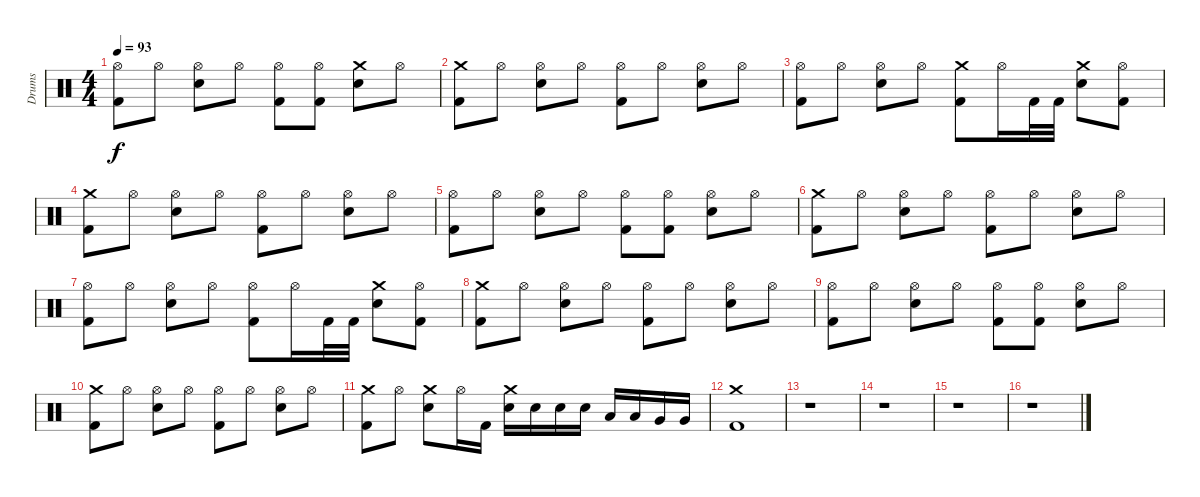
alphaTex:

\track ("Drums" "Drums") {instrument percussion}
\staff {score}
\articulation defaults
\ts (4 4)
\tempo 93
\clef neutral
\ks c
("Hi-Hat (open)" "Kick (hit) 2").8{dy f} "Hi-Hat (open)".8 ("Hi-Hat (open)" "Electric Snare (hit)").8 "Hi-Hat (open)".8 ("Hi-Hat (open)" "Kick (hit) 2").8 ("Hi-Hat (open)" "Kick (hit) 2").8 ("Crash medium (hit)" "Electric Snare (hit)").8 "Hi-Hat (open)".8 |
("Crash medium (hit)" "Kick (hit) 2").8 "Hi-Hat (open)".8 ("Hi-Hat (open)" "Electric Snare (hit)").8 "Hi-Hat (open)".8 ("Hi-Hat (open)" "Kick (hit) 2").8 "Hi-Hat (open)".8 ("Hi-Hat (open)" "Electric Snare (hit)").8 "Hi-Hat (open)".8 |
("Hi-Hat (open)" "Kick (hit) 2").8 "Hi-Hat (open)".8 ("Hi-Hat (open)" "Electric Snare (hit)").8 "Hi-Hat (open)".8 ("Crash medium (hit)" "Kick (hit) 2").8 "Hi-Hat (open)".16 "Kick (hit) 2".32 "Kick (hit) 2".32 ("Crash medium (hit)" "Electric Snare (hit)").8 ("Hi-Hat (open)" "Kick (hit) 2").8 |
("Crash medium (hit)" "Kick (hit) 2").8 "Hi-Hat (open)".8 ("Hi-Hat (open)" "Electric Snare (hit)").8 "Hi-Hat (open)".8 ("Hi-Hat (open)" "Kick (hit) 2").8 "Hi-Hat (open)".8 ("Hi-Hat (open)" "Electric Snare (hit)").8 "Hi-Hat (open)".8 |
("Hi-Hat (open)" "Kick (hit) 2").8 "Hi-Hat (open)".8 ("Hi-Hat (open)" "Electric Snare (hit)").8 "Hi-Hat (open)".8 ("Hi-Hat (open)" "Kick (hit) 2").8 ("Hi-Hat (open)" "Kick (hit) 2").8 ("Hi-Hat (open)" "Electric Snare (hit)").8 "Hi-Hat (open)".8 |
("Crash medium (hit)" "Kick (hit) 2").8 "Hi-Hat (open)".8 ("Hi-Hat (open)" "Electric Snare (hit)").8 "Hi-Hat (open)".8 ("Hi-Hat (open)" "Kick (hit) 2").8 "Hi-Hat (open)".8 ("Hi-Hat (open)" "Electric Snare (hit)").8 "Hi-Hat (open)".8 |
("Hi-Hat (open)" "Kick (hit) 2").8 "Hi-Hat (open)".8 ("Hi-Hat (open)" "Electric Snare (hit)").8 "Hi-Hat (open)".8 ("Hi-Hat (open)" "Kick (hit) 2").8 "Hi-Hat (open)".16 "Kick (hit) 2".32 "Kick (hit) 2".32 ("Crash medium (hit)" "Electric Snare (hit)").8 ("Hi-Hat (open)" "Kick (hit) 2").8 |
("Crash medium (hit)" "Kick (hit) 2").8 "Hi-Hat (open)".8 ("Hi-Hat (open)" "Electric Snare (hit)").8 "Hi-Hat (open)".8 ("Hi-Hat (open)" "Kick (hit) 2").8 "Hi-Hat (open)".8 ("Hi-Hat (open)" "Electric Snare (hit)").8 "Hi-Hat (open)".8 |
("Hi-Hat (open)" "Kick (hit) 2").8 "Hi-Hat (open)".8 ("Hi-Hat (open)" "Electric Snare (hit)").8 "Hi-Hat (open)".8 ("Hi-Hat (open)" "Kick (hit) 2").8 ("Hi-Hat (open)" "Kick (hit) 2").8 ("Hi-Hat (open)" "Electric Snare (hit)").8 "Hi-Hat (open)".8 |
("Crash medium (hit)" "Kick (hit) 2").8 "Hi-Hat (open)".8 ("Hi-Hat (open)" "Electric Snare (hit)").8 "Hi-Hat (open)".8 ("Hi-Hat (open)" "Kick (hit) 2").8 "Hi-Hat (open)".8 ("Hi-Hat (open)" "Electric Snare (hit)").8 "Hi-Hat (open)".8 |
("Crash medium (hit)" "Kick (hit) 2").8 "Hi-Hat (open)".8 ("Crash medium (hit)" "Electric Snare (hit)").8 "Hi-Hat (open)".16 "Kick (hit) 2".16 ("Crash medium (hit)" "Electric Snare (hit)").16 "Electric Snare (hit)".16 "Electric Snare (hit)".16 "Electric Snare (hit)".16 "Low Tom (hit)".16 "Low Tom (hit)".16 "Very Low Tom (hit)".16 "Very Low Tom (hit)".16 |
("Crash medium (hit)" "Kick (hit) 2").1 |
r.1 |
r.1 |
r.1 |
r.1
